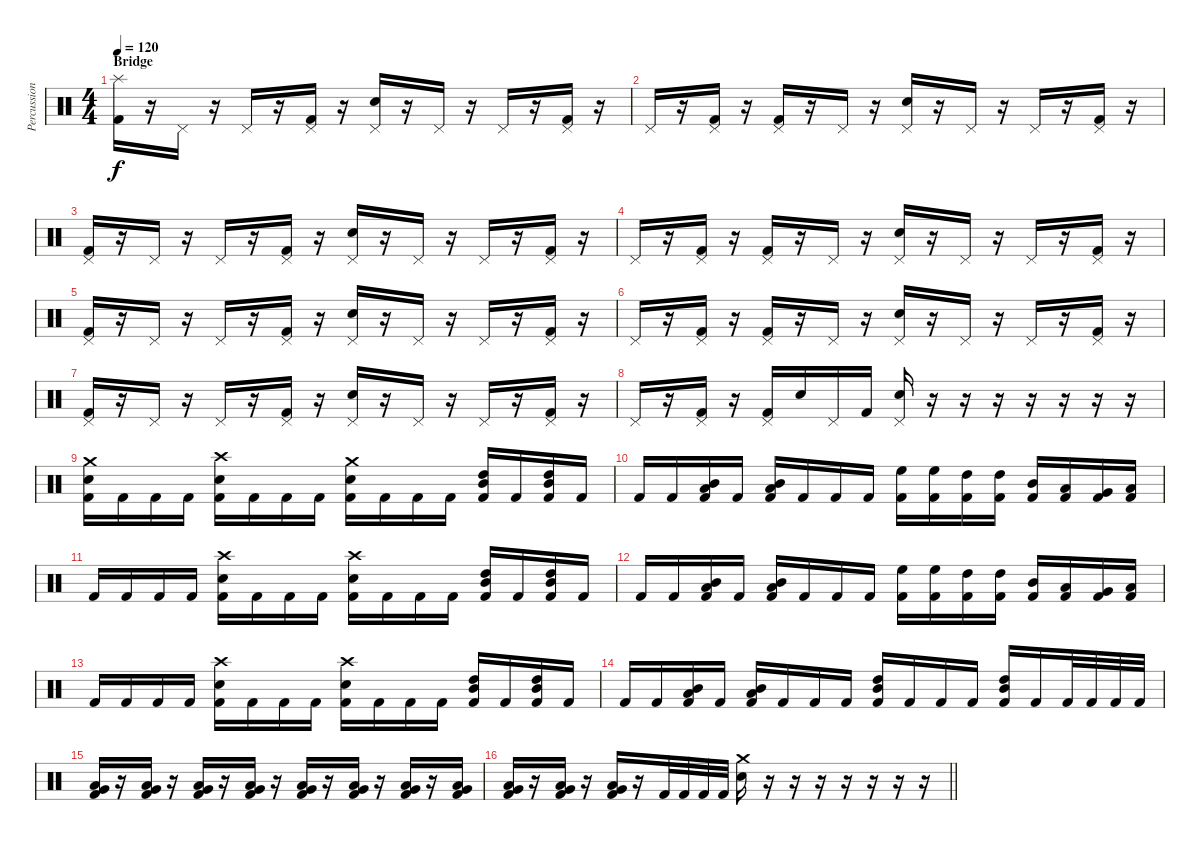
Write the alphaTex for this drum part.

\track ("Percussion" "Percussion") {instrument percussion}
\staff {score}
\articulation defaults
\ts (4 4)
\section ("" "Bridge")
\tempo 120
\clef neutral
\ks c
("Splash (hit)" "Kick (hit) 2").16{dy f} r.16 "Pedal Hi-Hat (hit)".16 r.16 "Pedal Hi-Hat (hit)".16 r.16 ("Pedal Hi-Hat (hit)" "Kick (hit) 2").16 r.16 ("Pedal Hi-Hat (hit)" "Electric Snare (hit)").16 r.16 "Pedal Hi-Hat (hit)".16 r.16 "Pedal Hi-Hat (hit)".16 r.16 ("Pedal Hi-Hat (hit)" "Kick (hit) 2").16 r.16 |
"Pedal Hi-Hat (hit)".16 r.16 ("Pedal Hi-Hat (hit)" "Kick (hit) 2").16 r.16 ("Pedal Hi-Hat (hit)" "Kick (hit) 2").16 r.16 "Pedal Hi-Hat (hit)".16 r.16 ("Pedal Hi-Hat (hit)" "Electric Snare (hit)").16 r.16 "Pedal Hi-Hat (hit)".16 r.16 "Pedal Hi-Hat (hit)".16 r.16 ("Pedal Hi-Hat (hit)" "Kick (hit) 2").16 r.16 |
("Pedal Hi-Hat (hit)" "Kick (hit) 2").16 r.16 "Pedal Hi-Hat (hit)".16 r.16 "Pedal Hi-Hat (hit)".16 r.16 ("Pedal Hi-Hat (hit)" "Kick (hit) 2").16 r.16 ("Pedal Hi-Hat (hit)" "Electric Snare (hit)").16 r.16 "Pedal Hi-Hat (hit)".16 r.16 "Pedal Hi-Hat (hit)".16 r.16 ("Pedal Hi-Hat (hit)" "Kick (hit) 2").16 r.16 |
"Pedal Hi-Hat (hit)".16 r.16 ("Pedal Hi-Hat (hit)" "Kick (hit) 2").16 r.16 ("Pedal Hi-Hat (hit)" "Kick (hit) 2").16 r.16 "Pedal Hi-Hat (hit)".16 r.16 ("Pedal Hi-Hat (hit)" "Electric Snare (hit)").16 r.16 "Pedal Hi-Hat (hit)".16 r.16 "Pedal Hi-Hat (hit)".16 r.16 ("Pedal Hi-Hat (hit)" "Kick (hit) 2").16 r.16 |
("Pedal Hi-Hat (hit)" "Kick (hit) 2").16 r.16 "Pedal Hi-Hat (hit)".16 r.16 "Pedal Hi-Hat (hit)".16 r.16 ("Pedal Hi-Hat (hit)" "Kick (hit) 2").16 r.16 ("Pedal Hi-Hat (hit)" "Electric Snare (hit)").16 r.16 "Pedal Hi-Hat (hit)".16 r.16 "Pedal Hi-Hat (hit)".16 r.16 ("Pedal Hi-Hat (hit)" "Kick (hit) 2").16 r.16 |
"Pedal Hi-Hat (hit)".16 r.16 ("Pedal Hi-Hat (hit)" "Kick (hit) 2").16 r.16 ("Pedal Hi-Hat (hit)" "Kick (hit) 2").16 r.16 "Pedal Hi-Hat (hit)".16 r.16 ("Pedal Hi-Hat (hit)" "Electric Snare (hit)").16 r.16 "Pedal Hi-Hat (hit)".16 r.16 "Pedal Hi-Hat (hit)".16 r.16 ("Pedal Hi-Hat (hit)" "Kick (hit) 2").16 r.16 |
("Pedal Hi-Hat (hit)" "Kick (hit) 2").16 r.16 "Pedal Hi-Hat (hit)".16 r.16 "Pedal Hi-Hat (hit)".16 r.16 ("Pedal Hi-Hat (hit)" "Kick (hit) 2").16 r.16 ("Pedal Hi-Hat (hit)" "Electric Snare (hit)").16 r.16 "Pedal Hi-Hat (hit)".16 r.16 "Pedal Hi-Hat (hit)".16 r.16 ("Pedal Hi-Hat (hit)" "Kick (hit) 2").16 r.16 |
"Pedal Hi-Hat (hit)".16 r.16 ("Pedal Hi-Hat (hit)" "Kick (hit) 2").16 r.16 ("Pedal Hi-Hat (hit)" "Kick (hit) 2").16 "Electric Snare (hit)".16 "Pedal Hi-Hat (hit)".16 "Kick (hit) 2".16 ("Pedal Hi-Hat (hit)" "Electric Snare (hit)").16 r.16 r.16 r.16 r.16 r.16 r.16 r.16 |
("Crash medium (hit)" "Electric Snare (hit)" "Kick (hit) 2").16 "Kick (hit) 2".16 "Kick (hit) 2".16 "Kick (hit) 2".16 ("Crash high (hit)" "Electric Snare (hit)" "Kick (hit) 2").16 "Kick (hit) 2".16 "Kick (hit) 2".16 "Kick (hit) 2".16 ("Crash medium (hit)" "Electric Snare (hit)" "Kick (hit) 2").16 "Kick (hit) 2".16 "Kick (hit) 2".16 "Kick (hit) 2".16 ("High Tom (hit)" "Mid Tom (hit)" "Kick (hit) 2").16 "Kick (hit) 2".16 ("High Tom (hit)" "Mid Tom (hit)" "Kick (hit) 2").16 "Kick (hit) 2".16 |
"Kick (hit) 2".16 "Kick (hit) 2".16 ("Mid Tom (hit)" "Low Tom (hit)" "Kick (hit) 2").16 "Kick (hit) 2".16 ("Mid Tom (hit)" "Low Tom (hit)" "Kick (hit) 2").16 "Kick (hit) 2".16 "Kick (hit) 2".16 "Kick (hit) 2".16 ("High Floor Tom (hit)" "Kick (hit) 2").16 ("High Floor Tom (hit)" "Kick (hit) 2").16 ("High Tom (hit)" "Kick (hit) 2").16 ("High Tom (hit)" "Kick (hit) 2").16 ("Mid Tom (hit)" "Kick (hit) 2").16 ("Low Tom (hit)" "Kick (hit) 2").16 ("Very Low Tom (hit)" "Kick (hit) 2").16 ("Low Floor Tom (hit)" "Kick (hit) 2").16 |
"Kick (hit) 2".16 "Kick (hit) 2".16 "Kick (hit) 2".16 "Kick (hit) 2".16 ("Crash high (hit)" "Electric Snare (hit)" "Kick (hit) 2").16 "Kick (hit) 2".16 "Kick (hit) 2".16 "Kick (hit) 2".16 ("Crash high (hit)" "Electric Snare (hit)" "Kick (hit) 2").16 "Kick (hit) 2".16 "Kick (hit) 2".16 "Kick (hit) 2".16 ("High Tom (hit)" "Mid Tom (hit)" "Kick (hit) 2").16 "Kick (hit) 2".16 ("High Tom (hit)" "Mid Tom (hit)" "Kick (hit) 2").16 "Kick (hit) 2".16 |
"Kick (hit) 2".16 "Kick (hit) 2".16 ("Mid Tom (hit)" "Low Tom (hit)" "Kick (hit) 2").16 "Kick (hit) 2".16 ("Mid Tom (hit)" "Low Tom (hit)" "Kick (hit) 2").16 "Kick (hit) 2".16 "Kick (hit) 2".16 "Kick (hit) 2".16 ("High Floor Tom (hit)" "Kick (hit) 2").16 ("High Floor Tom (hit)" "Kick (hit) 2").16 ("High Tom (hit)" "Kick (hit) 2").16 ("High Tom (hit)" "Kick (hit) 2").16 ("Mid Tom (hit)" "Kick (hit) 2").16 ("Low Tom (hit)" "Kick (hit) 2").16 ("Very Low Tom (hit)" "Kick (hit) 2").16 ("Low Floor Tom (hit)" "Kick (hit) 2").16 |
"Kick (hit) 2".16 "Kick (hit) 2".16 "Kick (hit) 2".16 "Kick (hit) 2".16 ("Crash high (hit)" "Electric Snare (hit)" "Kick (hit) 2").16 "Kick (hit) 2".16 "Kick (hit) 2".16 "Kick (hit) 2".16 ("Crash high (hit)" "Electric Snare (hit)" "Kick (hit) 2").16 "Kick (hit) 2".16 "Kick (hit) 2".16 "Kick (hit) 2".16 ("High Tom (hit)" "Mid Tom (hit)" "Kick (hit) 2").16 "Kick (hit) 2".16 ("High Tom (hit)" "Mid Tom (hit)" "Kick (hit) 2").16 "Kick (hit) 2".16 |
"Kick (hit) 2".16 "Kick (hit) 2".16 ("Mid Tom (hit)" "Low Tom (hit)" "Kick (hit) 2").16 "Kick (hit) 2".16 ("Mid Tom (hit)" "Low Tom (hit)" "Kick (hit) 2").16 "Kick (hit) 2".16 "Kick (hit) 2".16 "Kick (hit) 2".16 ("High Tom (hit)" "Mid Tom (hit)" "Kick (hit) 2").16 "Kick (hit) 2".16 "Kick (hit) 2".16 "Kick (hit) 2".16 ("High Tom (hit)" "Mid Tom (hit)" "Kick (hit) 2").16 "Kick (hit) 2".16 "Kick (hit) 2".32 "Kick (hit) 2".32 "Kick (hit) 2".32 "Kick (hit) 2".32 |
("Very Low Tom (hit)" "Low Tom (hit)" "Kick (hit) 2").16 r.16 ("Very Low Tom (hit)" "Low Tom (hit)" "Kick (hit) 2").16 r.16 ("Very Low Tom (hit)" "Low Tom (hit)" "Kick (hit) 2").16 r.16 ("Very Low Tom (hit)" "Low Tom (hit)" "Kick (hit) 2").16 r.16 ("Very Low Tom (hit)" "Low Tom (hit)" "Kick (hit) 2").16 r.16 ("Very Low Tom (hit)" "Low Tom (hit)" "Kick (hit) 2").16 r.16 ("Very Low Tom (hit)" "Low Tom (hit)" "Kick (hit) 2").16 r.16 ("Very Low Tom (hit)" "Low Tom (hit)" "Kick (hit) 2").16 |
\barLineRight lightlight
("Very Low Tom (hit)" "Low Tom (hit)" "Kick (hit) 2").16 r.16 ("Very Low Tom (hit)" "Low Tom (hit)" "Kick (hit) 2").16 r.16 ("Very Low Tom (hit)" "Low Tom (hit)" "Kick (hit) 2").16 r.16 "Kick (hit) 2".32 "Kick (hit) 2".32 "Kick (hit) 2".32 "Kick (hit) 2".32 ("Crash medium (hit)" "Electric Snare (hit)").16 r.16 r.16 r.16 r.16 r.16 r.16 r.16
